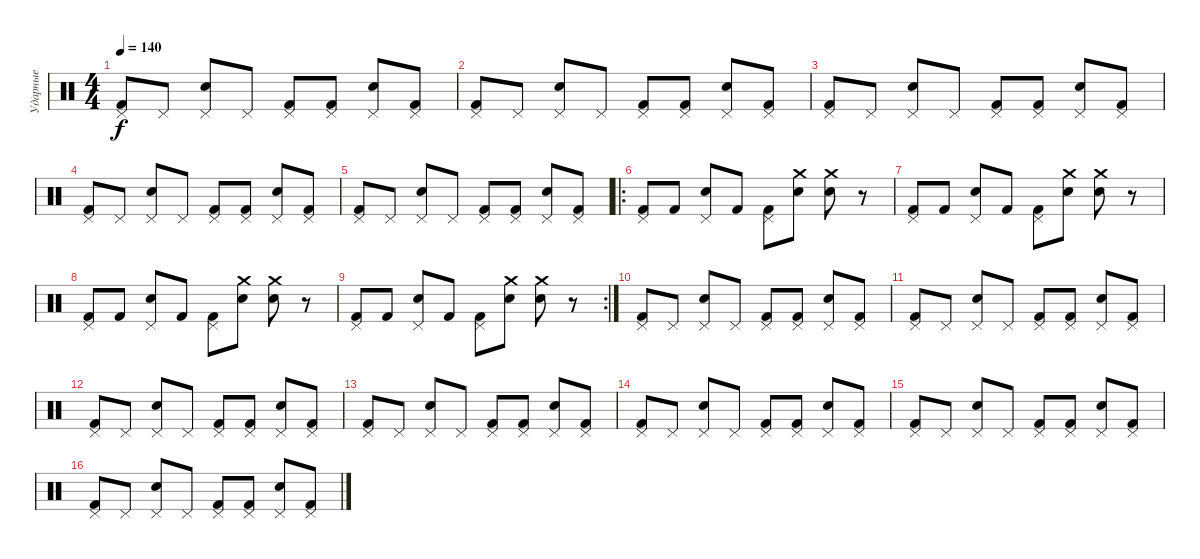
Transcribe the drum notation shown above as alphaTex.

\track ("Ударные" "Ударные") {instrument percussion}
\staff {score}
\articulation defaults
\ts (4 4)
\tempo 140
\clef neutral
\ks c
("Pedal Hi-Hat (hit)" "Kick (hit) 2").8{dy f} "Pedal Hi-Hat (hit)".8 ("Pedal Hi-Hat (hit)" "Snare (hit) 2").8 "Pedal Hi-Hat (hit)".8 ("Pedal Hi-Hat (hit)" "Kick (hit) 2").8 ("Pedal Hi-Hat (hit)" "Kick (hit) 2").8 ("Pedal Hi-Hat (hit)" "Snare (hit) 2").8 ("Pedal Hi-Hat (hit)" "Kick (hit) 2").8 |
("Pedal Hi-Hat (hit)" "Kick (hit) 2").8 "Pedal Hi-Hat (hit)".8 ("Pedal Hi-Hat (hit)" "Snare (hit) 2").8 "Pedal Hi-Hat (hit)".8 ("Pedal Hi-Hat (hit)" "Kick (hit) 2").8 ("Pedal Hi-Hat (hit)" "Kick (hit) 2").8 ("Pedal Hi-Hat (hit)" "Snare (hit) 2").8 ("Pedal Hi-Hat (hit)" "Kick (hit) 2").8 |
("Pedal Hi-Hat (hit)" "Kick (hit) 2").8 "Pedal Hi-Hat (hit)".8 ("Pedal Hi-Hat (hit)" "Snare (hit) 2").8 "Pedal Hi-Hat (hit)".8 ("Pedal Hi-Hat (hit)" "Kick (hit) 2").8 ("Pedal Hi-Hat (hit)" "Kick (hit) 2").8 ("Pedal Hi-Hat (hit)" "Snare (hit) 2").8 ("Pedal Hi-Hat (hit)" "Kick (hit) 2").8 |
("Pedal Hi-Hat (hit)" "Kick (hit) 2").8 "Pedal Hi-Hat (hit)".8 ("Pedal Hi-Hat (hit)" "Snare (hit) 2").8 "Pedal Hi-Hat (hit)".8 ("Pedal Hi-Hat (hit)" "Kick (hit) 2").8 ("Pedal Hi-Hat (hit)" "Kick (hit) 2").8 ("Pedal Hi-Hat (hit)" "Snare (hit) 2").8 ("Pedal Hi-Hat (hit)" "Kick (hit) 2").8 |
("Pedal Hi-Hat (hit)" "Kick (hit) 2").8 "Pedal Hi-Hat (hit)".8 ("Pedal Hi-Hat (hit)" "Snare (hit) 2").8 "Pedal Hi-Hat (hit)".8 ("Pedal Hi-Hat (hit)" "Kick (hit) 2").8 ("Pedal Hi-Hat (hit)" "Kick (hit) 2").8 ("Pedal Hi-Hat (hit)" "Snare (hit) 2").8 ("Pedal Hi-Hat (hit)" "Kick (hit) 2").8 |
\ro
("Pedal Hi-Hat (hit)" "Kick (hit) 2").8 "Kick (hit) 2".8 ("Pedal Hi-Hat (hit)" "Snare (hit) 2").8 "Kick (hit) 2".8 ("Pedal Hi-Hat (hit)" "Kick (hit) 2").8 ("Crash medium (hit)" "Snare (hit) 2").8 ("Crash medium (hit)" "Snare (hit) 2").8 r.8 |
("Pedal Hi-Hat (hit)" "Kick (hit) 2").8 "Kick (hit) 2".8 ("Pedal Hi-Hat (hit)" "Snare (hit) 2").8 "Kick (hit) 2".8 ("Pedal Hi-Hat (hit)" "Kick (hit) 2").8 ("Crash medium (hit)" "Snare (hit) 2").8 ("Crash medium (hit)" "Snare (hit) 2").8 r.8 |
("Pedal Hi-Hat (hit)" "Kick (hit) 2").8 "Kick (hit) 2".8 ("Pedal Hi-Hat (hit)" "Snare (hit) 2").8 "Kick (hit) 2".8 ("Pedal Hi-Hat (hit)" "Kick (hit) 2").8 ("Crash medium (hit)" "Snare (hit) 2").8 ("Crash medium (hit)" "Snare (hit) 2").8 r.8 |
\rc 2
("Pedal Hi-Hat (hit)" "Kick (hit) 2").8 "Kick (hit) 2".8 ("Pedal Hi-Hat (hit)" "Snare (hit) 2").8 "Kick (hit) 2".8 ("Pedal Hi-Hat (hit)" "Kick (hit) 2").8 ("Crash medium (hit)" "Snare (hit) 2").8 ("Crash medium (hit)" "Snare (hit) 2").8 r.8 |
("Pedal Hi-Hat (hit)" "Kick (hit) 2").8 "Pedal Hi-Hat (hit)".8 ("Pedal Hi-Hat (hit)" "Snare (hit) 2").8 "Pedal Hi-Hat (hit)".8 ("Pedal Hi-Hat (hit)" "Kick (hit) 2").8 ("Pedal Hi-Hat (hit)" "Kick (hit) 2").8 ("Pedal Hi-Hat (hit)" "Snare (hit) 2").8 ("Pedal Hi-Hat (hit)" "Kick (hit) 2").8 |
("Pedal Hi-Hat (hit)" "Kick (hit) 2").8 "Pedal Hi-Hat (hit)".8 ("Pedal Hi-Hat (hit)" "Snare (hit) 2").8 "Pedal Hi-Hat (hit)".8 ("Pedal Hi-Hat (hit)" "Kick (hit) 2").8 ("Pedal Hi-Hat (hit)" "Kick (hit) 2").8 ("Pedal Hi-Hat (hit)" "Snare (hit) 2").8 ("Pedal Hi-Hat (hit)" "Kick (hit) 2").8 |
("Pedal Hi-Hat (hit)" "Kick (hit) 2").8 "Pedal Hi-Hat (hit)".8 ("Pedal Hi-Hat (hit)" "Snare (hit) 2").8 "Pedal Hi-Hat (hit)".8 ("Pedal Hi-Hat (hit)" "Kick (hit) 2").8 ("Pedal Hi-Hat (hit)" "Kick (hit) 2").8 ("Pedal Hi-Hat (hit)" "Snare (hit) 2").8 ("Pedal Hi-Hat (hit)" "Kick (hit) 2").8 |
("Pedal Hi-Hat (hit)" "Kick (hit) 2").8 "Pedal Hi-Hat (hit)".8 ("Pedal Hi-Hat (hit)" "Snare (hit) 2").8 "Pedal Hi-Hat (hit)".8 ("Pedal Hi-Hat (hit)" "Kick (hit) 2").8 ("Pedal Hi-Hat (hit)" "Kick (hit) 2").8 ("Pedal Hi-Hat (hit)" "Snare (hit) 2").8 ("Pedal Hi-Hat (hit)" "Kick (hit) 2").8 |
("Pedal Hi-Hat (hit)" "Kick (hit) 2").8 "Pedal Hi-Hat (hit)".8 ("Pedal Hi-Hat (hit)" "Snare (hit) 2").8 "Pedal Hi-Hat (hit)".8 ("Pedal Hi-Hat (hit)" "Kick (hit) 2").8 ("Pedal Hi-Hat (hit)" "Kick (hit) 2").8 ("Pedal Hi-Hat (hit)" "Snare (hit) 2").8 ("Pedal Hi-Hat (hit)" "Kick (hit) 2").8 |
("Pedal Hi-Hat (hit)" "Kick (hit) 2").8 "Pedal Hi-Hat (hit)".8 ("Pedal Hi-Hat (hit)" "Snare (hit) 2").8 "Pedal Hi-Hat (hit)".8 ("Pedal Hi-Hat (hit)" "Kick (hit) 2").8 ("Pedal Hi-Hat (hit)" "Kick (hit) 2").8 ("Pedal Hi-Hat (hit)" "Snare (hit) 2").8 ("Pedal Hi-Hat (hit)" "Kick (hit) 2").8 |
("Pedal Hi-Hat (hit)" "Kick (hit) 2").8 "Pedal Hi-Hat (hit)".8 ("Pedal Hi-Hat (hit)" "Snare (hit) 2").8 "Pedal Hi-Hat (hit)".8 ("Pedal Hi-Hat (hit)" "Kick (hit) 2").8 ("Pedal Hi-Hat (hit)" "Kick (hit) 2").8 ("Pedal Hi-Hat (hit)" "Snare (hit) 2").8 ("Pedal Hi-Hat (hit)" "Kick (hit) 2").8
